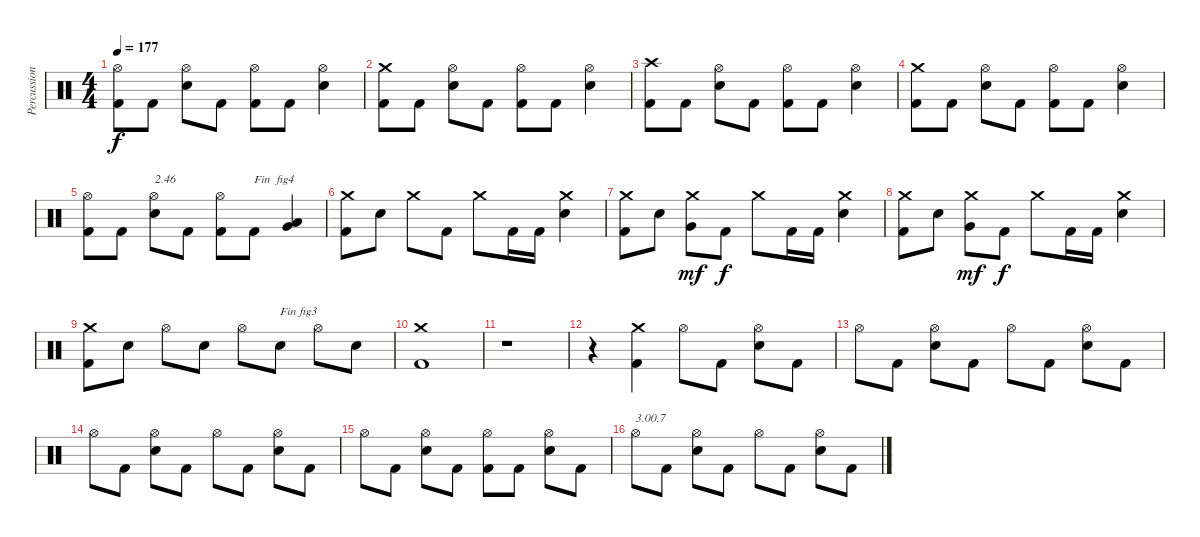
\track ("Percussions" "Percussion") {instrument percussion}
\staff {score}
\articulation defaults
\ts (4 4)
\tempo 177
\clef neutral
\ks c
("Kick (hit) 2" "Hi-Hat (open)").8{dy f} "Kick (hit) 2".8 ("Electric Snare (hit)" "Hi-Hat (open)").8 "Kick (hit) 2".8 ("Kick (hit) 2" "Hi-Hat (open)").8 "Kick (hit) 2".8 ("Electric Snare (hit)" "Hi-Hat (open)").4 |
("Kick (hit) 2" "Crash medium (hit)").8 "Kick (hit) 2".8 ("Electric Snare (hit)" "Hi-Hat (open)").8 "Kick (hit) 2".8 ("Kick (hit) 2" "Hi-Hat (open)").8 "Kick (hit) 2".8 ("Electric Snare (hit)" "Hi-Hat (open)").4 |
("Kick (hit) 2" "Crash high (hit)").8 "Kick (hit) 2".8 ("Electric Snare (hit)" "Hi-Hat (open)").8 "Kick (hit) 2".8 ("Kick (hit) 2" "Hi-Hat (open)").8 "Kick (hit) 2".8 ("Electric Snare (hit)" "Hi-Hat (open)").4 |
("Kick (hit) 2" "Crash medium (hit)").8 "Kick (hit) 2".8 ("Electric Snare (hit)" "Hi-Hat (open)").8 "Kick (hit) 2".8 ("Kick (hit) 2" "Hi-Hat (open)").8 "Kick (hit) 2".8 ("Electric Snare (hit)" "Hi-Hat (open)").4 |
("Kick (hit) 2" "Hi-Hat (open)").8 "Kick (hit) 2".8 ("Electric Snare (hit)" "Hi-Hat (open)").8{txt "2.46"} "Kick (hit) 2".8 ("Kick (hit) 2" "Hi-Hat (open)").8 "Kick (hit) 2".8{txt "Fin  fig4"} ("Low Floor Tom (hit)" "Very Low Tom (hit)").4 |
("Kick (hit) 2" "Crash medium (hit)").8 "Electric Snare (hit)".8 "Crash medium (hit)".8 "Kick (hit) 2".8 "Crash medium (hit)".8 "Kick (hit) 2".16 "Kick (hit) 2".16 ("Electric Snare (hit)" "Crash medium (hit)").4 |
("Kick (hit) 2" "Crash medium (hit)").8 "Electric Snare (hit)".8 ("Very Low Tom (hit)" "Crash medium (hit)").8{dy mf} "Kick (hit) 2".8{dy f} "Crash medium (hit)".8 "Kick (hit) 2".16 "Kick (hit) 2".16 ("Electric Snare (hit)" "Crash medium (hit)").4 |
("Kick (hit) 2" "Crash medium (hit)").8 "Electric Snare (hit)".8 ("Very Low Tom (hit)" "Crash medium (hit)").8{dy mf} "Kick (hit) 2".8{dy f} "Crash medium (hit)".8 "Kick (hit) 2".16 "Kick (hit) 2".16 ("Electric Snare (hit)" "Crash medium (hit)").4 |
("Kick (hit) 2" "Crash medium (hit)").8 "Electric Snare (hit)".8 "Hi-Hat (open)".8 "Electric Snare (hit)".8 "Hi-Hat (open)".8 "Electric Snare (hit)".8{txt "Fin fig3"} "Hi-Hat (open)".8 "Electric Snare (hit)".8 |
("Kick (hit) 2" "Crash medium (hit)").1 |
r.1 |
r.4 ("Kick (hit) 2" "Crash medium (hit)").4 "Hi-Hat (open)".8 "Kick (hit) 2".8 ("Electric Snare (hit)" "Hi-Hat (open)").8 "Kick (hit) 2".8 |
"Hi-Hat (open)".8 "Kick (hit) 2".8 ("Electric Snare (hit)" "Hi-Hat (open)").8 "Kick (hit) 2".8 "Hi-Hat (open)".8 "Kick (hit) 2".8 ("Electric Snare (hit)" "Hi-Hat (open)").8 "Kick (hit) 2".8 |
"Hi-Hat (open)".8 "Kick (hit) 2".8 ("Electric Snare (hit)" "Hi-Hat (open)").8 "Kick (hit) 2".8 "Hi-Hat (open)".8 "Kick (hit) 2".8 ("Electric Snare (hit)" "Hi-Hat (open)").8 "Kick (hit) 2".8 |
"Hi-Hat (open)".8 "Kick (hit) 2".8 ("Electric Snare (hit)" "Hi-Hat (open)").8 "Kick (hit) 2".8 ("Kick (hit) 2" "Hi-Hat (open)").8 "Kick (hit) 2".8 ("Electric Snare (hit)" "Hi-Hat (open)").8 "Kick (hit) 2".8 |
"Hi-Hat (open)".8{txt "3.00.7"} "Kick (hit) 2".8 ("Electric Snare (hit)" "Hi-Hat (open)").8 "Kick (hit) 2".8 "Hi-Hat (open)".8 "Kick (hit) 2".8 ("Electric Snare (hit)" "Hi-Hat (open)").8 "Kick (hit) 2".8
